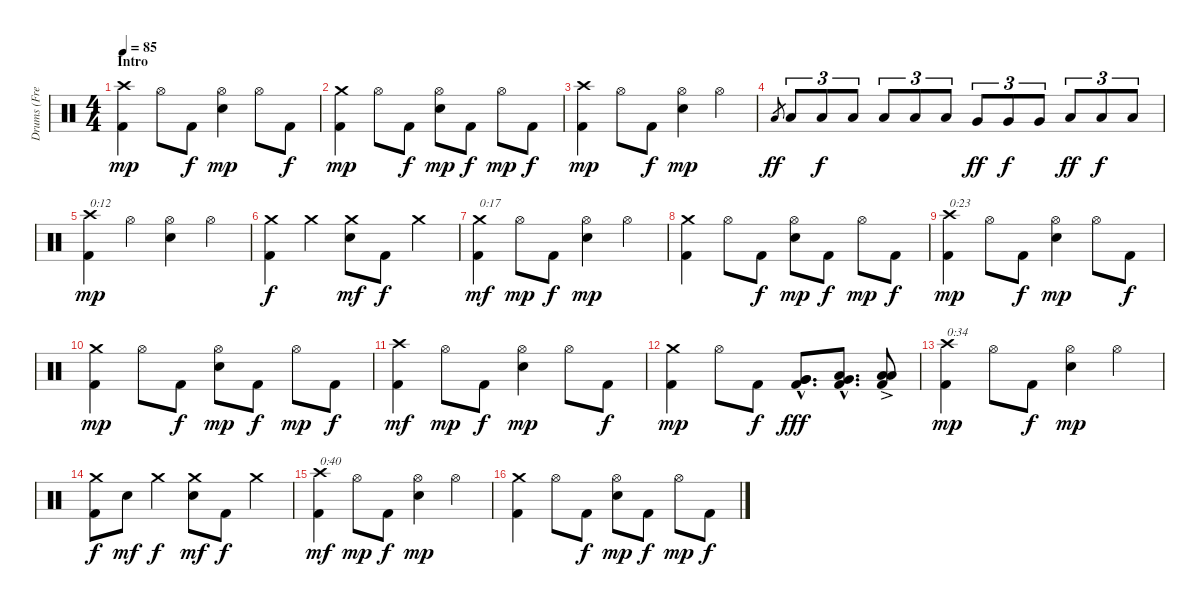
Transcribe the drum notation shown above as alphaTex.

\track ("Drums (Fred Estby)" "Drums (Fre") {instrument percussion}
\staff {score}
\articulation defaults
\ts (4 4)
\section ("" "Intro")
\tempo 85
\clef neutral
\ks c
("Kick (hit) 2" "Crash high (hit)").4{dy mp} "Hi-Hat (open)".8 "Kick (hit) 2".8{dy f} ("Electric Snare (hit)" "Hi-Hat (open)").4{dy mp} "Hi-Hat (open)".8 "Kick (hit) 2".8{dy f} |
("Kick (hit) 2" "Crash medium (hit)").4{dy mp} "Hi-Hat (open)".8 "Kick (hit) 2".8{dy f} ("Electric Snare (hit)" "Hi-Hat (open)").8{dy mp} "Kick (hit) 2".8{dy f} "Hi-Hat (open)".8{dy mp} "Kick (hit) 2".8{dy f} |
("Kick (hit) 2" "Crash high (hit)").4{dy mp} "Hi-Hat (open)".8 "Kick (hit) 2".8{dy f} ("Electric Snare (hit)" "Hi-Hat (open)").4{dy mp} "Hi-Hat (open)".4 |
"Low Tom (hit)".8{gr dy ff} "Low Tom (hit)".8{tu (3 2)} "Low Tom (hit)".8{tu (3 2) dy f} "Low Tom (hit)".8{tu (3 2)} "Low Tom (hit)".8{tu (3 2)} "Low Tom (hit)".8{tu (3 2)} "Low Tom (hit)".8{tu (3 2)} "Very Low Tom (hit)".8{tu (3 2) dy ff} "Very Low Tom (hit)".8{tu (3 2) dy f} "Very Low Tom (hit)".8{tu (3 2)} "Low Floor Tom (hit)".8{tu (3 2) dy ff} "Low Floor Tom (hit)".8{tu (3 2) dy f} "Low Floor Tom (hit)".8{tu (3 2)} |
("Kick (hit) 2" "Crash high (hit)").4{txt "0:12" dy mp} "Hi-Hat (open)".4 ("Electric Snare (hit)" "Hi-Hat (open)").4 "Hi-Hat (open)".4 |
("Kick (hit) 2" "Crash medium (hit)").4{dy f} "Crash medium (hit)".4 ("Electric Snare (hit)" "Crash medium (hit)").8{dy mf} "Kick (hit) 2".8{dy f} "Crash medium (hit)".4 |
("Kick (hit) 2" "Crash medium (hit)").4{txt "0:17" dy mf} "Hi-Hat (open)".8{dy mp} "Kick (hit) 2".8{dy f} ("Electric Snare (hit)" "Hi-Hat (open)").4{dy mp} "Hi-Hat (open)".4 |
("Kick (hit) 2" "Crash medium (hit)").4 "Hi-Hat (open)".8 "Kick (hit) 2".8{dy f} ("Electric Snare (hit)" "Hi-Hat (open)").8{dy mp} "Kick (hit) 2".8{dy f} "Hi-Hat (open)".8{dy mp} "Kick (hit) 2".8{dy f} |
("Kick (hit) 2" "Crash high (hit)").4{txt "0:23" dy mp} "Hi-Hat (open)".8 "Kick (hit) 2".8{dy f} ("Electric Snare (hit)" "Hi-Hat (open)").4{dy mp} "Hi-Hat (open)".8 "Kick (hit) 2".8{dy f} |
("Kick (hit) 2" "Crash medium (hit)").4{dy mp} "Hi-Hat (open)".8 "Kick (hit) 2".8{dy f} ("Electric Snare (hit)" "Hi-Hat (open)").8{dy mp} "Kick (hit) 2".8{dy f} "Hi-Hat (open)".8{dy mp} "Kick (hit) 2".8{dy f} |
("Kick (hit) 2" "Crash high (hit)").4{dy mf} "Hi-Hat (open)".8{dy mp} "Kick (hit) 2".8{dy f} ("Electric Snare (hit)" "Hi-Hat (open)").4{dy mp} "Hi-Hat (open)".8 "Kick (hit) 2".8{dy f} |
("Kick (hit) 2" "Crash medium (hit)").4{dy mp} "Hi-Hat (open)".8 "Kick (hit) 2".8{dy f} ("Kick (hit) 2"{hac} "Very Low Tom (hit)"{hac} "Very Low Tom (hit)"{hac}).8{d dy fff} ("Kick (hit) 2"{hac} "Low Floor Tom (hit)"{hac} "Very Low Tom (hit)"{hac}).8{d} ("Kick (hit) 2" "Low Floor Tom (hit)"{ac} "Low Floor Tom (hit)"{ac}).8 |
("Kick (hit) 2" "Crash high (hit)").4{txt "0:34" dy mp} "Hi-Hat (open)".8 "Kick (hit) 2".8{dy f} ("Electric Snare (hit)" "Hi-Hat (open)").4{dy mp} "Hi-Hat (open)".4 |
("Kick (hit) 2" "Crash medium (hit)").8{dy f} "Electric Snare (hit)".8{dy mf} "Crash medium (hit)".4{dy f} ("Electric Snare (hit)" "Crash medium (hit)").8{dy mf} "Kick (hit) 2".8{dy f} "Crash medium (hit)".4 |
("Kick (hit) 2" "Crash high (hit)").4{txt "0:40" dy mf} "Hi-Hat (open)".8{dy mp} "Kick (hit) 2".8{dy f} ("Electric Snare (hit)" "Hi-Hat (open)").4{dy mp} "Hi-Hat (open)".4 |
("Kick (hit) 2" "Crash medium (hit)").4 "Hi-Hat (open)".8 "Kick (hit) 2".8{dy f} ("Electric Snare (hit)" "Hi-Hat (open)").8{dy mp} "Kick (hit) 2".8{dy f} "Hi-Hat (open)".8{dy mp} "Kick (hit) 2".8{dy f}
